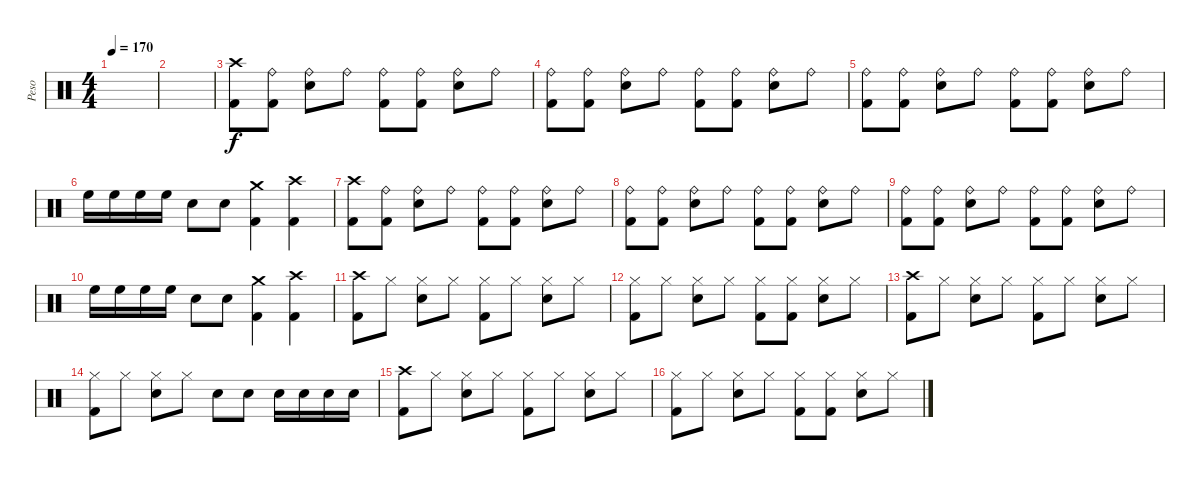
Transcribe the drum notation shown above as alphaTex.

\track ("Peso" "Peso") {instrument percussion}
\staff {score}
\articulation defaults
\ts (4 4)
\tempo 170
\clef neutral
\ks c
|
|
("Crash high (hit)" "Kick (hit) 2").8 ("Ride (bell)"{x} "Kick (hit) 2").8 ("Ride (bell)" "Snare (hit) 2").8 "Ride (bell)"{x}.8 ("Ride (bell)" "Kick (hit) 2").8 ("Ride (bell)"{x} "Kick (hit) 2").8 ("Ride (bell)" "Snare (hit) 2").8 "Ride (bell)"{x}.8 |
("Ride (bell)" "Kick (hit) 2").8 ("Ride (bell)"{x} "Kick (hit) 2").8 ("Ride (bell)" "Snare (hit) 2").8 "Ride (bell)"{x}.8 ("Ride (bell)" "Kick (hit) 2").8 ("Ride (bell)"{x} "Kick (hit) 2").8 ("Ride (bell)" "Snare (hit) 2").8 "Ride (bell)"{x}.8 |
("Ride (bell)" "Kick (hit) 2").8 ("Ride (bell)"{x} "Kick (hit) 2").8 ("Ride (bell)" "Snare (hit) 2").8 "Ride (bell)"{x}.8 ("Ride (bell)" "Kick (hit) 2").8 ("Ride (bell)"{x} "Kick (hit) 2").8 ("Ride (bell)" "Snare (hit) 2").8 "Ride (bell)"{x}.8 |
"High Floor Tom (hit)"{x}.16 "High Floor Tom (hit)".16 "High Floor Tom (hit)".16 "High Floor Tom (hit)"{x}.16 "Snare (hit) 2".8 "Snare (hit) 2".8 ("Crash medium (hit)" "Kick (hit) 2").4 ("Crash high (hit)" "Kick (hit) 2").4 |
("Crash high (hit)" "Kick (hit) 2").8 ("Ride (bell)"{x} "Kick (hit) 2").8 ("Ride (bell)" "Snare (hit) 2").8 "Ride (bell)"{x}.8 ("Ride (bell)" "Kick (hit) 2").8 ("Ride (bell)"{x} "Kick (hit) 2").8 ("Ride (bell)" "Snare (hit) 2").8 "Ride (bell)"{x}.8 |
("Ride (bell)" "Kick (hit) 2").8 ("Ride (bell)"{x} "Kick (hit) 2").8 ("Ride (bell)" "Snare (hit) 2").8 "Ride (bell)"{x}.8 ("Ride (bell)" "Kick (hit) 2").8 ("Ride (bell)"{x} "Kick (hit) 2").8 ("Ride (bell)" "Snare (hit) 2").8 "Ride (bell)"{x}.8 |
("Ride (bell)" "Kick (hit) 2").8 ("Ride (bell)"{x} "Kick (hit) 2").8 ("Ride (bell)" "Snare (hit) 2").8 "Ride (bell)"{x}.8 ("Ride (bell)" "Kick (hit) 2").8 ("Ride (bell)"{x} "Kick (hit) 2").8 ("Ride (bell)" "Snare (hit) 2").8 "Ride (bell)"{x}.8 |
"High Floor Tom (hit)"{x}.16 "High Floor Tom (hit)".16 "High Floor Tom (hit)".16 "High Floor Tom (hit)"{x}.16 "Snare (hit) 2".8 "Snare (hit) 2".8 ("Crash medium (hit)" "Kick (hit) 2").4 ("Crash high (hit)" "Kick (hit) 2").4 |
("Crash high (hit)" "Kick (hit) 2").8 "Hi-Hat (closed)".8 ("Hi-Hat (closed)" "Snare (hit) 2").8 "Hi-Hat (closed)".8 ("Hi-Hat (closed)" "Kick (hit) 2").8 "Hi-Hat (closed)".8 ("Hi-Hat (closed)" "Snare (hit) 2").8 "Hi-Hat (closed)".8 |
("Hi-Hat (closed)" "Kick (hit) 2").8 "Hi-Hat (closed)".8 ("Hi-Hat (closed)" "Snare (hit) 2").8 "Hi-Hat (closed)".8 ("Hi-Hat (closed)" "Kick (hit) 2").8 ("Hi-Hat (closed)" "Kick (hit) 2").8 ("Hi-Hat (closed)" "Snare (hit) 2").8 "Hi-Hat (closed)".8 |
("Crash high (hit)" "Kick (hit) 2").8 "Hi-Hat (closed)".8 ("Hi-Hat (closed)" "Snare (hit) 2").8 "Hi-Hat (closed)".8 ("Hi-Hat (closed)" "Kick (hit) 2").8 "Hi-Hat (closed)".8 ("Hi-Hat (closed)" "Snare (hit) 2").8 "Hi-Hat (closed)".8 |
("Hi-Hat (closed)" "Kick (hit) 2").8 "Hi-Hat (closed)".8 ("Hi-Hat (closed)" "Snare (hit) 2").8 "Hi-Hat (closed)".8 "Snare (hit) 2".8 "Snare (hit) 2".8 "Snare (hit) 2".16 "Snare (hit) 2".16 "Snare (hit) 2".16 "Snare (hit) 2".16 |
("Crash high (hit)" "Kick (hit) 2").8 "Hi-Hat (closed)".8 ("Hi-Hat (closed)" "Snare (hit) 2").8 "Hi-Hat (closed)".8 ("Hi-Hat (closed)" "Kick (hit) 2").8 "Hi-Hat (closed)".8 ("Hi-Hat (closed)" "Snare (hit) 2").8 "Hi-Hat (closed)".8 |
("Hi-Hat (closed)" "Kick (hit) 2").8 "Hi-Hat (closed)".8 ("Hi-Hat (closed)" "Snare (hit) 2").8 "Hi-Hat (closed)".8 ("Hi-Hat (closed)" "Kick (hit) 2").8 ("Hi-Hat (closed)" "Kick (hit) 2").8 ("Hi-Hat (closed)" "Snare (hit) 2").8 "Hi-Hat (closed)".8
